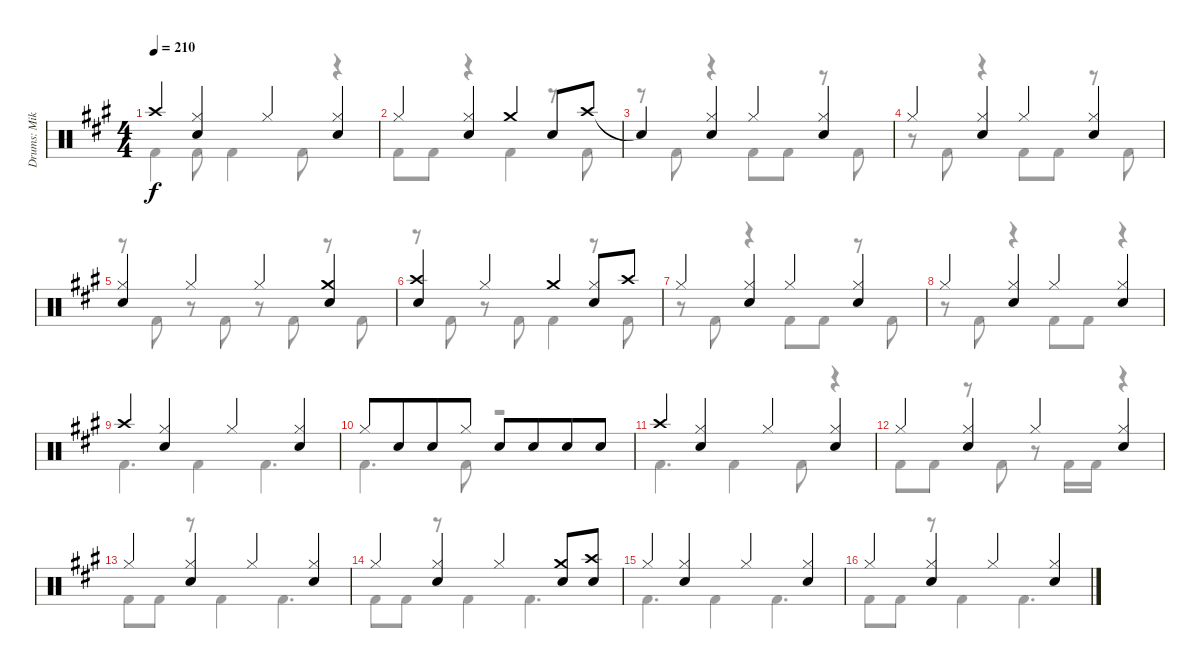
\track ("Drums: Mikkey" "Drums: Mik") {instrument percussion}
\staff {score}
\articulation defaults
\voice
\ts (4 4)
\tempo 210
\clef neutral
\ks a "Crash high (hit)".4{dy f}
("Hi-Hat (closed)" "Snare (hit) 2").4 "Hi-Hat (closed)".4 ("Hi-Hat (closed)" "Snare (hit) 2").4 |
"Hi-Hat (closed)".4 ("Hi-Hat (closed)" "Snare (hit) 2").4 "Crash medium (hit)".4 "Snare (hit) 2".8 "Crash high (hit)".8 |
"Snare (hit)"{t}.4 ("Hi-Hat (closed)" "Snare (hit) 2").4 "Hi-Hat (closed)".4 ("Hi-Hat (closed)" "Snare (hit) 2").4 |
"Hi-Hat (closed)".4 ("Hi-Hat (closed)" "Snare (hit) 2").4 "Hi-Hat (closed)".4 ("Hi-Hat (closed)" "Snare (hit) 2").4 |
("Hi-Hat (closed)" "Snare (hit) 2").4 "Hi-Hat (closed)".4 "Hi-Hat (closed)".4 ("Crash medium (hit)" "Snare (hit) 2").4 |
("Crash high (hit)" "Snare (hit) 2").4 "Hi-Hat (closed)".4 "Crash medium (hit)".4 ("Hi-Hat (closed)" "Snare (hit) 2").8 "Crash high (hit)".8 |
"Hi-Hat (closed)".4 ("Hi-Hat (closed)" "Snare (hit) 2").4 "Hi-Hat (closed)".4 ("Hi-Hat (closed)" "Snare (hit) 2").4 |
"Hi-Hat (closed)".4 ("Hi-Hat (closed)" "Snare (hit) 2").4 "Hi-Hat (closed)".4 ("Hi-Hat (closed)" "Snare (hit) 2").4 |
"Crash high (hit)".4 ("Hi-Hat (closed)" "Snare (hit) 2").4 "Hi-Hat (closed)".4 ("Hi-Hat (closed)" "Snare (hit) 2").4 |
"Hi-Hat (closed)".8 "Snare (hit) 2".8{beam merge} "Snare (hit) 2".8 "Hi-Hat (closed)".8 "Snare (hit) 2".8 "Snare (hit) 2".8{beam merge} "Snare (hit) 2".8 "Snare (hit) 2".8 |
"Crash high (hit)".4 ("Hi-Hat (closed)" "Snare (hit) 2").4 "Hi-Hat (closed)".4 ("Hi-Hat (closed)" "Snare (hit) 2").4 |
"Hi-Hat (closed)".4 ("Hi-Hat (closed)" "Snare (hit) 2").4 "Hi-Hat (closed)".4 ("Hi-Hat (closed)" "Snare (hit) 2").4 |
"Hi-Hat (closed)".4 ("Hi-Hat (closed)" "Snare (hit) 2").4 "Hi-Hat (closed)".4 ("Hi-Hat (closed)" "Snare (hit) 2").4 |
"Hi-Hat (closed)".4 ("Hi-Hat (closed)" "Snare (hit) 2").4 "Hi-Hat (closed)".4 ("Crash medium (hit)" "Snare (hit) 2").8 ("Crash high (hit)" "Snare (hit) 2").8 |
"Hi-Hat (closed)".4 ("Hi-Hat (closed)" "Snare (hit) 2").4 "Hi-Hat (closed)".4 ("Hi-Hat (closed)" "Snare (hit) 2").4 |
"Hi-Hat (closed)".4 ("Hi-Hat (closed)" "Snare (hit) 2").4 "Hi-Hat (closed)".4 ("Hi-Hat (closed)" "Snare (hit) 2").4
\voice
\clef neutral
\ottava regular
\simile none
\ks a "Kick (hit) 2".4{dy f} "Kick (hit) 2".8 "Kick (hit) 2".4 "Kick (hit) 2".8
r.4 |
"Kick (hit) 2".8 "Kick (hit) 2".8 r.4 "Kick (hit) 2".4 r.8 "Kick (hit) 2".8 |
r.8 "Kick (hit) 2".8 r.4 "Kick (hit) 2".8 "Kick (hit) 2".8 r.8 "Kick (hit) 2".8 |
r.8 "Kick (hit) 2".8 r.4 "Kick (hit) 2".8 "Kick (hit) 2".8 r.8 "Kick (hit) 2".8 |
r.8 "Kick (hit) 2".8 r.8 "Kick (hit) 2".8 r.8 "Kick (hit) 2".8 r.8 "Kick (hit) 2".8 |
r.8 "Kick (hit) 2".8 r.8 "Kick (hit) 2".8 "Kick (hit) 2".4 r.8 "Kick (hit) 2".8 |
r.8 "Kick (hit) 2".8 r.4 "Kick (hit) 2".8 "Kick (hit) 2".8 r.8 "Kick (hit) 2".8 |
r.8 "Kick (hit) 2".8 r.4 "Kick (hit) 2".8 "Kick (hit) 2".8 r.4 |
"Kick (hit) 2".4{d} "Kick (hit) 2".4 "Kick (hit) 2".4{d} |
"Kick (hit) 2".4{d} "Kick (hit) 2".8 r.2 |
"Kick (hit) 2".4{d} "Kick (hit) 2".4 "Kick (hit) 2".8 r.4 |
"Kick (hit) 2".8 "Kick (hit) 2".8 r.8 "Kick (hit) 2".8 r.8 "Kick (hit) 2".16 "Kick (hit) 2".16 r.4 |
"Kick (hit) 2".8 "Kick (hit) 2".8 r.8 "Kick (hit) 2".4 "Kick (hit) 2".4{d} |
"Kick (hit) 2".8 "Kick (hit) 2".8 r.8 "Kick (hit) 2".4 "Kick (hit) 2".4{d} |
"Kick (hit) 2".4{d} "Kick (hit) 2".4 "Kick (hit) 2".4{d} |
"Kick (hit) 2".8 "Kick (hit) 2".8 r.8 "Kick (hit) 2".4 "Kick (hit) 2".4{d}
